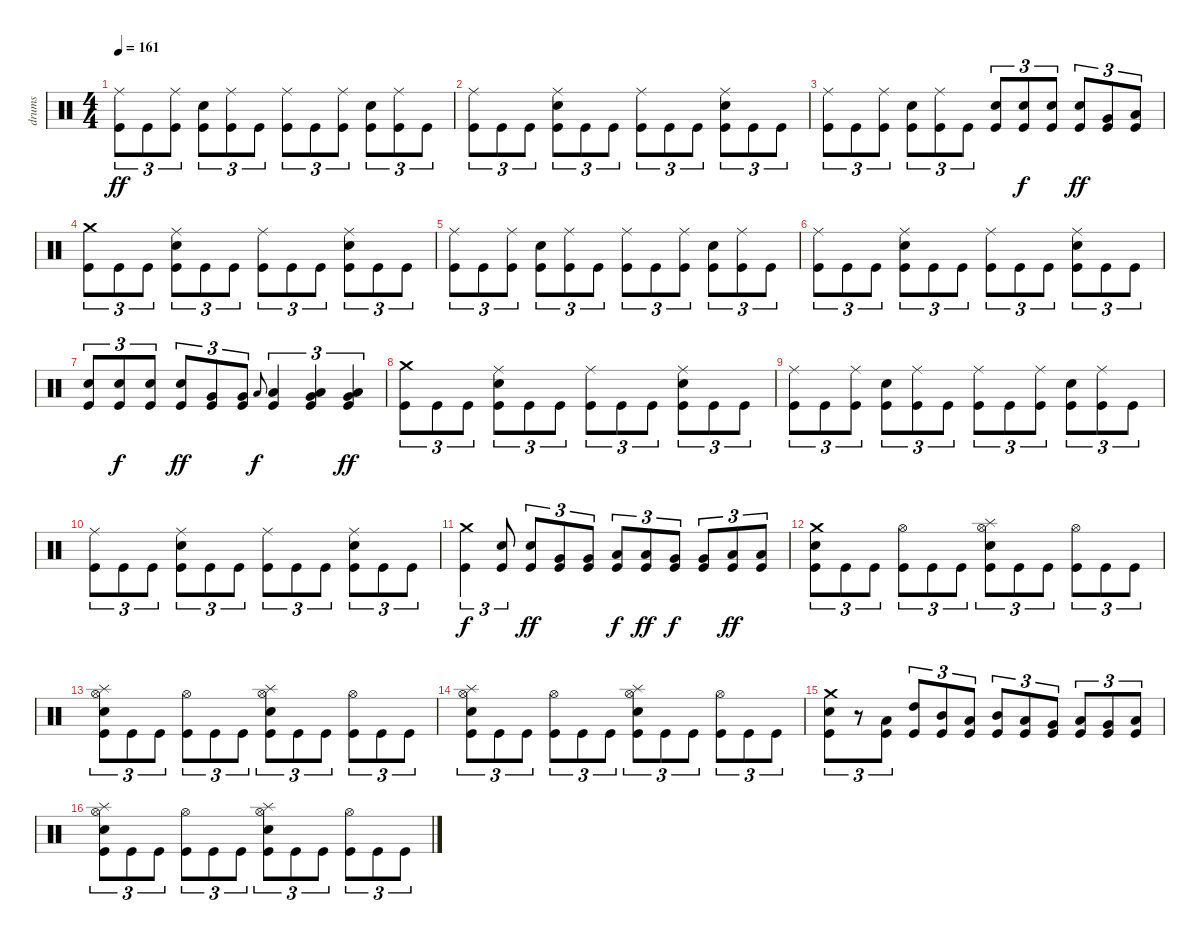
\track ("drums" "drums") {instrument percussion}
\staff {score}
\articulation defaults
\ts (4 4)
\tempo 161
\clef neutral
\ks c
("Ride (middle)" "Kick (hit)").8{tu (3 2) dy ff} "Kick (hit)".8{tu (3 2)} ("Ride (middle)" "Kick (hit)").8{tu (3 2)} ("Electric Snare (hit)" "Kick (hit)").8{tu (3 2)} ("Ride (middle)" "Kick (hit)").8{tu (3 2)} "Kick (hit)".8{tu (3 2)} ("Ride (middle)" "Kick (hit)").8{tu (3 2)} "Kick (hit)".8{tu (3 2)} ("Ride (middle)" "Kick (hit)").8{tu (3 2)} ("Electric Snare (hit)" "Kick (hit)").8{tu (3 2)} ("Ride (middle)" "Kick (hit)").8{tu (3 2)} "Kick (hit)".8{tu (3 2)} |
("Ride (middle)" "Kick (hit)").8{tu (3 2)} "Kick (hit)".8{tu (3 2)} "Kick (hit)".8{tu (3 2)} ("Ride (middle)" "Electric Snare (hit)" "Kick (hit)").8{tu (3 2)} "Kick (hit)".8{tu (3 2)} "Kick (hit)".8{tu (3 2)} ("Ride (middle)" "Kick (hit)").8{tu (3 2)} "Kick (hit)".8{tu (3 2)} "Kick (hit)".8{tu (3 2)} ("Ride (middle)" "Electric Snare (hit)" "Kick (hit)").8{tu (3 2)} "Kick (hit)".8{tu (3 2)} "Kick (hit)".8{tu (3 2)} |
("Ride (middle)" "Kick (hit)").8{tu (3 2)} "Kick (hit)".8{tu (3 2)} ("Ride (middle)" "Kick (hit)").8{tu (3 2)} ("Electric Snare (hit)" "Kick (hit)").8{tu (3 2)} ("Ride (middle)" "Kick (hit)").8{tu (3 2)} "Kick (hit)".8{tu (3 2)} ("Electric Snare (hit)" "Kick (hit)").8{tu (3 2)} ("Electric Snare (hit)" "Kick (hit)").8{tu (3 2) dy f} ("Electric Snare (hit)" "Kick (hit)").8{tu (3 2)} ("Electric Snare (hit)" "Kick (hit)").8{tu (3 2) dy ff} ("Very Low Tom (hit)" "Kick (hit)").8{tu (3 2)} ("Low Floor Tom (hit)" "Kick (hit)").8{tu (3 2)} |
("Crash medium (hit)" "Kick (hit)").8{tu (3 2)} "Kick (hit)".8{tu (3 2)} "Kick (hit)".8{tu (3 2)} ("Ride (middle)" "Electric Snare (hit)" "Kick (hit)").8{tu (3 2)} "Kick (hit)".8{tu (3 2)} "Kick (hit)".8{tu (3 2)} ("Ride (middle)" "Kick (hit)").8{tu (3 2)} "Kick (hit)".8{tu (3 2)} "Kick (hit)".8{tu (3 2)} ("Ride (middle)" "Electric Snare (hit)" "Kick (hit)").8{tu (3 2)} "Kick (hit)".8{tu (3 2)} "Kick (hit)".8{tu (3 2)} |
("Ride (middle)" "Kick (hit)").8{tu (3 2)} "Kick (hit)".8{tu (3 2)} ("Ride (middle)" "Kick (hit)").8{tu (3 2)} ("Electric Snare (hit)" "Kick (hit)").8{tu (3 2)} ("Ride (middle)" "Kick (hit)").8{tu (3 2)} "Kick (hit)".8{tu (3 2)} ("Ride (middle)" "Kick (hit)").8{tu (3 2)} "Kick (hit)".8{tu (3 2)} ("Ride (middle)" "Kick (hit)").8{tu (3 2)} ("Electric Snare (hit)" "Kick (hit)").8{tu (3 2)} ("Ride (middle)" "Kick (hit)").8{tu (3 2)} "Kick (hit)".8{tu (3 2)} |
("Ride (middle)" "Kick (hit)").8{tu (3 2)} "Kick (hit)".8{tu (3 2)} "Kick (hit)".8{tu (3 2)} ("Ride (middle)" "Electric Snare (hit)" "Kick (hit)").8{tu (3 2)} "Kick (hit)".8{tu (3 2)} "Kick (hit)".8{tu (3 2)} ("Ride (middle)" "Kick (hit)").8{tu (3 2)} "Kick (hit)".8{tu (3 2)} "Kick (hit)".8{tu (3 2)} ("Ride (middle)" "Electric Snare (hit)" "Kick (hit)").8{tu (3 2)} "Kick (hit)".8{tu (3 2)} "Kick (hit)".8{tu (3 2)} |
("Electric Snare (hit)" "Kick (hit)").8{tu (3 2)} ("Electric Snare (hit)" "Kick (hit)").8{tu (3 2) dy f} ("Electric Snare (hit)" "Kick (hit)").8{tu (3 2)} ("Electric Snare (hit)" "Kick (hit)").8{tu (3 2) dy ff} ("Very Low Tom (hit)" "Kick (hit)").8{tu (3 2)} ("Very Low Tom (hit)" "Kick (hit)").8{tu (3 2)} "Low Floor Tom (hit)".8{gr onbeat dy f} ("Low Floor Tom (hit)" "Kick (hit)").4{tu (3 2)} ("Very Low Tom (hit)" "Low Floor Tom (hit)" "Kick (hit)").4{tu (3 2)} ("Very Low Tom (hit)" "Low Floor Tom (hit)" "Kick (hit)").4{tu (3 2) dy ff} |
("Crash medium (hit)" "Kick (hit)").8{tu (3 2)} "Kick (hit)".8{tu (3 2)} "Kick (hit)".8{tu (3 2)} ("Ride (middle)" "Electric Snare (hit)" "Kick (hit)").8{tu (3 2)} "Kick (hit)".8{tu (3 2)} "Kick (hit)".8{tu (3 2)} ("Ride (middle)" "Kick (hit)").8{tu (3 2)} "Kick (hit)".8{tu (3 2)} "Kick (hit)".8{tu (3 2)} ("Ride (middle)" "Electric Snare (hit)" "Kick (hit)").8{tu (3 2)} "Kick (hit)".8{tu (3 2)} "Kick (hit)".8{tu (3 2)} |
("Ride (middle)" "Kick (hit)").8{tu (3 2)} "Kick (hit)".8{tu (3 2)} ("Ride (middle)" "Kick (hit)").8{tu (3 2)} ("Electric Snare (hit)" "Kick (hit)").8{tu (3 2)} ("Ride (middle)" "Kick (hit)").8{tu (3 2)} "Kick (hit)".8{tu (3 2)} ("Ride (middle)" "Kick (hit)").8{tu (3 2)} "Kick (hit)".8{tu (3 2)} ("Ride (middle)" "Kick (hit)").8{tu (3 2)} ("Electric Snare (hit)" "Kick (hit)").8{tu (3 2)} ("Ride (middle)" "Kick (hit)").8{tu (3 2)} "Kick (hit)".8{tu (3 2)} |
("Ride (middle)" "Kick (hit)").8{tu (3 2)} "Kick (hit)".8{tu (3 2)} "Kick (hit)".8{tu (3 2)} ("Ride (middle)" "Electric Snare (hit)" "Kick (hit)").8{tu (3 2)} "Kick (hit)".8{tu (3 2)} "Kick (hit)".8{tu (3 2)} ("Ride (middle)" "Kick (hit)").8{tu (3 2)} "Kick (hit)".8{tu (3 2)} "Kick (hit)".8{tu (3 2)} ("Ride (middle)" "Electric Snare (hit)" "Kick (hit)").8{tu (3 2)} "Kick (hit)".8{tu (3 2)} "Kick (hit)".8{tu (3 2)} |
("Crash medium (hit)" "Kick (hit)").4{tu (3 2) dy f} ("Electric Snare (hit)" "Kick (hit)").8{tu (3 2)} ("Electric Snare (hit)" "Kick (hit)").8{tu (3 2) dy ff} ("Very Low Tom (hit)" "Kick (hit)").8{tu (3 2)} ("Very Low Tom (hit)" "Kick (hit)").8{tu (3 2)} ("Low Tom (hit)" "Kick (hit)").8{tu (3 2) dy f} ("Low Tom (hit)" "Kick (hit)").8{tu (3 2) dy ff} ("Very Low Tom (hit)" "Kick (hit)").8{tu (3 2) dy f} ("Very Low Tom (hit)" "Kick (hit)").8{tu (3 2)} ("Low Floor Tom (hit)" "Kick (hit)").8{tu (3 2) dy ff} ("Low Floor Tom (hit)" "Kick (hit)").8{tu (3 2)} |
("Crash medium (hit)" "Electric Snare (hit)" "Kick (hit)").8{tu (3 2)} "Kick (hit)".8{tu (3 2)} "Kick (hit)".8{tu (3 2)} ("Hi-Hat (open)" "Kick (hit)").8{tu (3 2)} "Kick (hit)".8{tu (3 2)} "Kick (hit)".8{tu (3 2)} ("Splash (hit)" "Hi-Hat (open)" "Electric Snare (hit)" "Kick (hit)").8{tu (3 2)} "Kick (hit)".8{tu (3 2)} "Kick (hit)".8{tu (3 2)} ("Hi-Hat (open)" "Kick (hit)").8{tu (3 2)} "Kick (hit)".8{tu (3 2)} "Kick (hit)".8{tu (3 2)} |
("Splash (hit)" "Hi-Hat (open)" "Electric Snare (hit)" "Kick (hit)").8{tu (3 2)} "Kick (hit)".8{tu (3 2)} "Kick (hit)".8{tu (3 2)} ("Hi-Hat (open)" "Kick (hit)").8{tu (3 2)} "Kick (hit)".8{tu (3 2)} "Kick (hit)".8{tu (3 2)} ("Splash (hit)" "Hi-Hat (open)" "Electric Snare (hit)" "Kick (hit)").8{tu (3 2)} "Kick (hit)".8{tu (3 2)} "Kick (hit)".8{tu (3 2)} ("Hi-Hat (open)" "Kick (hit)").8{tu (3 2)} "Kick (hit)".8{tu (3 2)} "Kick (hit)".8{tu (3 2)} |
("Splash (hit)" "Hi-Hat (open)" "Electric Snare (hit)" "Kick (hit)").8{tu (3 2)} "Kick (hit)".8{tu (3 2)} "Kick (hit)".8{tu (3 2)} ("Hi-Hat (open)" "Kick (hit)").8{tu (3 2)} "Kick (hit)".8{tu (3 2)} "Kick (hit)".8{tu (3 2)} ("Splash (hit)" "Hi-Hat (open)" "Electric Snare (hit)" "Kick (hit)").8{tu (3 2)} "Kick (hit)".8{tu (3 2)} "Kick (hit)".8{tu (3 2)} ("Hi-Hat (open)" "Kick (hit)").8{tu (3 2)} "Kick (hit)".8{tu (3 2)} "Kick (hit)".8{tu (3 2)} |
("Crash medium (hit)" "Electric Snare (hit)" "Kick (hit)").8{tu (3 2)} r.8{tu (3 2)} ("Low Tom (hit)" "Kick (hit)").8{tu (3 2)} ("High Tom (hit)" "Kick (hit)").8{tu (3 2)} ("Mid Tom (hit)" "Kick (hit)").8{tu (3 2)} ("Low Tom (hit)" "Kick (hit)").8{tu (3 2)} ("Mid Tom (hit)" "Kick (hit)").8{tu (3 2)} ("Low Tom (hit)" "Kick (hit)").8{tu (3 2)} ("Very Low Tom (hit)" "Kick (hit)").8{tu (3 2)} ("Low Tom (hit)" "Kick (hit)").8{tu (3 2)} ("Very Low Tom (hit)" "Kick (hit)").8{tu (3 2)} ("Low Floor Tom (hit)" "Kick (hit)").8{tu (3 2)} |
("Splash (hit)" "Hi-Hat (open)" "Electric Snare (hit)" "Kick (hit)").8{tu (3 2)} "Kick (hit)".8{tu (3 2)} "Kick (hit)".8{tu (3 2)} ("Hi-Hat (open)" "Kick (hit)").8{tu (3 2)} "Kick (hit)".8{tu (3 2)} "Kick (hit)".8{tu (3 2)} ("Splash (hit)" "Hi-Hat (open)" "Electric Snare (hit)" "Kick (hit)").8{tu (3 2)} "Kick (hit)".8{tu (3 2)} "Kick (hit)".8{tu (3 2)} ("Hi-Hat (open)" "Kick (hit)").8{tu (3 2)} "Kick (hit)".8{tu (3 2)} "Kick (hit)".8{tu (3 2)}
